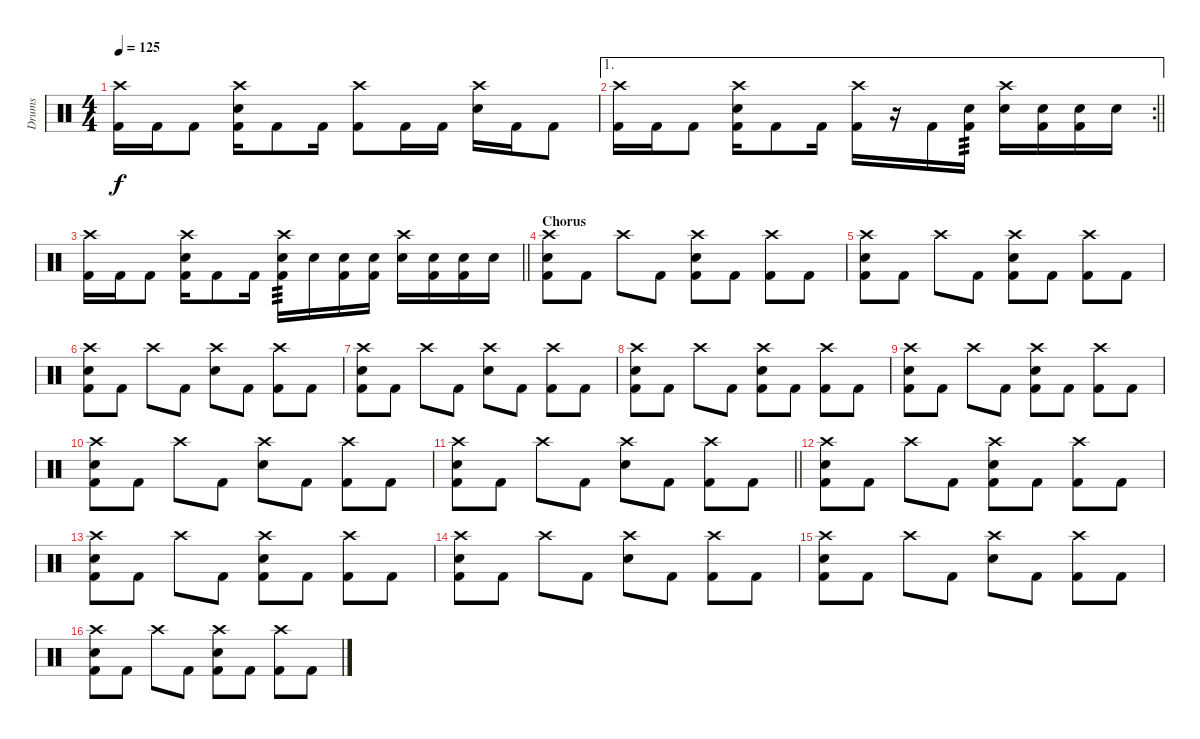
\track ("Drums" "Drums") {instrument percussion}
\staff {score}
\articulation defaults
\ts (4 4)
\tempo 125
\clef neutral
\ks c
("Crash high (hit)" "Kick (hit) 2").16{dy f} "Kick (hit) 2".16 "Kick (hit) 2".8 ("Crash high (hit)" "Electric Snare (hit)" "Kick (hit) 2").16 "Kick (hit) 2".8 "Kick (hit) 2".16 ("Crash high (hit)" "Kick (hit) 2").8 "Kick (hit) 2".16 "Kick (hit) 2".16 ("Crash high (hit)" "Electric Snare (hit)").16 "Kick (hit) 2".16 "Kick (hit) 2".8 |
\ae 1
\rc 2
\barLineRight lightlight
("Crash high (hit)" "Kick (hit) 2").16 "Kick (hit) 2".16 "Kick (hit) 2".8 ("Crash high (hit)" "Electric Snare (hit)" "Kick (hit) 2").16 "Kick (hit) 2".8 "Kick (hit) 2".16 ("Crash high (hit)" "Kick (hit) 2").16 r.16 "Kick (hit) 2".16 ("Electric Snare (hit)" "Kick (hit) 2").16{tp 3} ("Crash high (hit)" "Electric Snare (hit)").16 ("Electric Snare (hit)" "Kick (hit) 2").16 ("Electric Snare (hit)" "Kick (hit) 2").16 "Electric Snare (hit)".16 |
\barLineRight lightlight
("Crash high (hit)" "Kick (hit) 2").16 "Kick (hit) 2".16 "Kick (hit) 2".8 ("Crash high (hit)" "Electric Snare (hit)" "Kick (hit) 2").16 "Kick (hit) 2".8 "Kick (hit) 2".16 ("Crash high (hit)" "Electric Snare (hit)" "Kick (hit) 2").16{tp 3} "Electric Snare (hit)".16 ("Electric Snare (hit)" "Kick (hit) 2").16 ("Electric Snare (hit)" "Kick (hit) 2").16 ("Crash high (hit)" "Electric Snare (hit)").16 ("Electric Snare (hit)" "Kick (hit) 2").16 ("Electric Snare (hit)" "Kick (hit) 2").16 "Electric Snare (hit)".16 |
\section ("" "Chorus")
("Crash high (hit)" "Electric Snare (hit)" "Kick (hit) 2").8 "Kick (hit) 2".8 "Crash high (hit)".8 "Kick (hit) 2".8 ("Crash high (hit)" "Electric Snare (hit)" "Kick (hit) 2").8 "Kick (hit) 2".8 ("Crash high (hit)" "Kick (hit) 2").8 "Kick (hit) 2".8 |
("Crash high (hit)" "Electric Snare (hit)" "Kick (hit) 2").8 "Kick (hit) 2".8 "Crash high (hit)".8 "Kick (hit) 2".8 ("Crash high (hit)" "Electric Snare (hit)" "Kick (hit) 2").8 "Kick (hit) 2".8 ("Crash high (hit)" "Kick (hit) 2").8 "Kick (hit) 2".8 |
("Crash high (hit)" "Electric Snare (hit)" "Kick (hit) 2").8 "Kick (hit) 2".8 "Crash high (hit)".8 "Kick (hit) 2".8 ("Crash high (hit)" "Electric Snare (hit)").8 "Kick (hit) 2".8 ("Crash high (hit)" "Kick (hit) 2").8 "Kick (hit) 2".8 |
("Crash high (hit)" "Electric Snare (hit)" "Kick (hit) 2").8 "Kick (hit) 2".8 "Crash high (hit)".8 "Kick (hit) 2".8 ("Crash high (hit)" "Electric Snare (hit)").8 "Kick (hit) 2".8 ("Crash high (hit)" "Kick (hit) 2").8 "Kick (hit) 2".8 |
("Crash high (hit)" "Electric Snare (hit)" "Kick (hit) 2").8 "Kick (hit) 2".8 "Crash high (hit)".8 "Kick (hit) 2".8 ("Crash high (hit)" "Electric Snare (hit)" "Kick (hit) 2").8 "Kick (hit) 2".8 ("Crash high (hit)" "Kick (hit) 2").8 "Kick (hit) 2".8 |
("Crash high (hit)" "Electric Snare (hit)" "Kick (hit) 2").8 "Kick (hit) 2".8 "Crash high (hit)".8 "Kick (hit) 2".8 ("Crash high (hit)" "Electric Snare (hit)" "Kick (hit) 2").8 "Kick (hit) 2".8 ("Crash high (hit)" "Kick (hit) 2").8 "Kick (hit) 2".8 |
("Crash high (hit)" "Electric Snare (hit)" "Kick (hit) 2").8 "Kick (hit) 2".8 "Crash high (hit)".8 "Kick (hit) 2".8 ("Crash high (hit)" "Electric Snare (hit)").8 "Kick (hit) 2".8 ("Crash high (hit)" "Kick (hit) 2").8 "Kick (hit) 2".8 |
\barLineRight lightlight
("Crash high (hit)" "Electric Snare (hit)" "Kick (hit) 2").8 "Kick (hit) 2".8 "Crash high (hit)".8 "Kick (hit) 2".8 ("Crash high (hit)" "Electric Snare (hit)").8 "Kick (hit) 2".8 ("Crash high (hit)" "Kick (hit) 2").8 "Kick (hit) 2".8 |
("Crash high (hit)" "Electric Snare (hit)" "Kick (hit) 2").8 "Kick (hit) 2".8 "Crash high (hit)".8 "Kick (hit) 2".8 ("Crash high (hit)" "Electric Snare (hit)" "Kick (hit) 2").8 "Kick (hit) 2".8 ("Crash high (hit)" "Kick (hit) 2").8 "Kick (hit) 2".8 |
("Crash high (hit)" "Electric Snare (hit)" "Kick (hit) 2").8 "Kick (hit) 2".8 "Crash high (hit)".8 "Kick (hit) 2".8 ("Crash high (hit)" "Electric Snare (hit)" "Kick (hit) 2").8 "Kick (hit) 2".8 ("Crash high (hit)" "Kick (hit) 2").8 "Kick (hit) 2".8 |
("Crash high (hit)" "Electric Snare (hit)" "Kick (hit) 2").8 "Kick (hit) 2".8 "Crash high (hit)".8 "Kick (hit) 2".8 ("Crash high (hit)" "Electric Snare (hit)").8 "Kick (hit) 2".8 ("Crash high (hit)" "Kick (hit) 2").8 "Kick (hit) 2".8 |
("Crash high (hit)" "Electric Snare (hit)" "Kick (hit) 2").8 "Kick (hit) 2".8 "Crash high (hit)".8 "Kick (hit) 2".8 ("Crash high (hit)" "Electric Snare (hit)").8 "Kick (hit) 2".8 ("Crash high (hit)" "Kick (hit) 2").8 "Kick (hit) 2".8 |
("Crash high (hit)" "Electric Snare (hit)" "Kick (hit) 2").8 "Kick (hit) 2".8 "Crash high (hit)".8 "Kick (hit) 2".8 ("Crash high (hit)" "Electric Snare (hit)" "Kick (hit) 2").8 "Kick (hit) 2".8 ("Crash high (hit)" "Kick (hit) 2").8 "Kick (hit) 2".8
